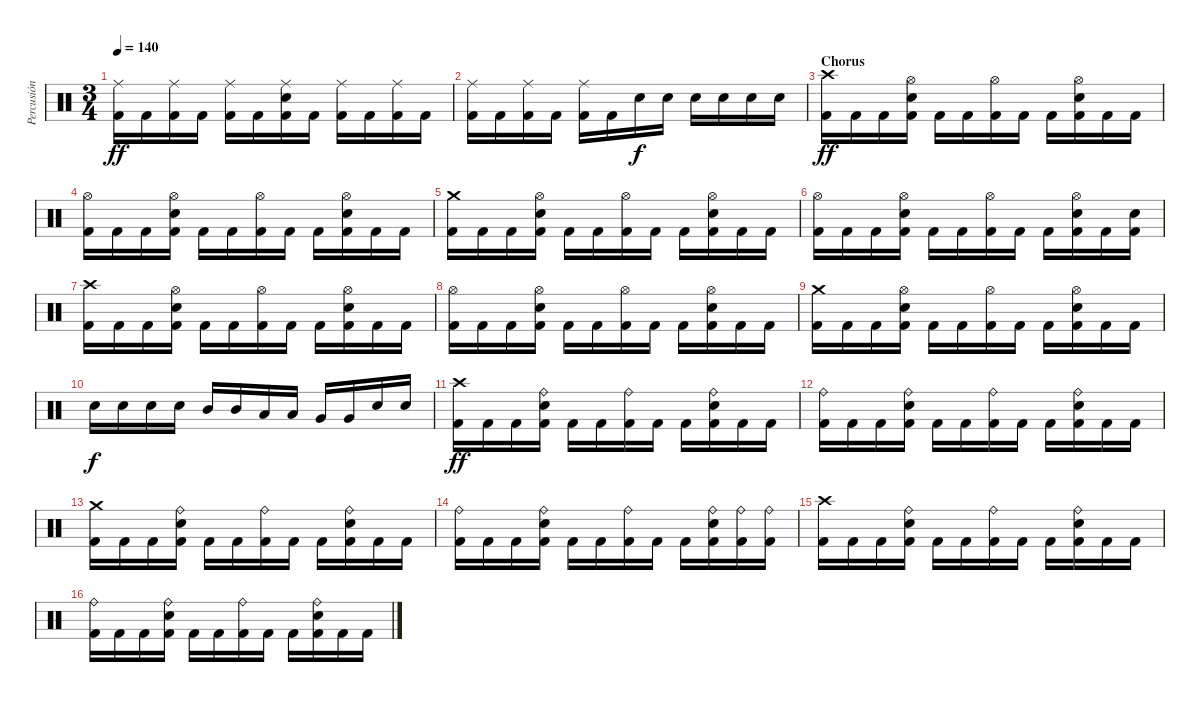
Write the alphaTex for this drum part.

\track ("Percusión" "Percusión") {instrument percussion}
\staff {score}
\articulation defaults
\ts (3 4)
\tempo 140
\clef neutral
\ks c
("Ride (middle)" "Kick (hit) 2").16{dy ff} "Kick (hit) 2".16 ("Ride (middle)" "Kick (hit) 2").16 "Kick (hit) 2".16 ("Ride (middle)" "Kick (hit) 2").16 "Kick (hit) 2".16 ("Ride (middle)" "Electric Snare (hit)" "Kick (hit) 2").16 "Kick (hit) 2".16 ("Ride (middle)" "Kick (hit) 2").16 "Kick (hit) 2".16 ("Ride (middle)" "Kick (hit) 2").16 "Kick (hit) 2".16 |
("Ride (middle)" "Kick (hit) 2").16 "Kick (hit) 2".16 ("Ride (middle)" "Kick (hit) 2").16 "Kick (hit) 2".16 ("Ride (middle)" "Kick (hit) 2").16 "Kick (hit) 2".16 "Electric Snare (hit)".16{dy f} "Electric Snare (hit)".16 "Electric Snare (hit)".16 "Electric Snare (hit)".16 "Electric Snare (hit)".16 "Electric Snare (hit)".16 |
\section ("" "Chorus")
("Crash high (hit)" "Kick (hit) 2").16{dy ff} "Kick (hit) 2".16 "Kick (hit) 2".16 ("Hi-Hat (open)" "Electric Snare (hit)" "Kick (hit) 2").16 "Kick (hit) 2".16 "Kick (hit) 2".16 ("Hi-Hat (open)" "Kick (hit) 2").16 "Kick (hit) 2".16 "Kick (hit) 2".16 ("Hi-Hat (open)" "Electric Snare (hit)" "Kick (hit) 2").16 "Kick (hit) 2".16 "Kick (hit) 2".16 |
("Hi-Hat (open)" "Kick (hit) 2").16 "Kick (hit) 2".16 "Kick (hit) 2".16 ("Hi-Hat (open)" "Electric Snare (hit)" "Kick (hit) 2").16 "Kick (hit) 2".16 "Kick (hit) 2".16 ("Hi-Hat (open)" "Kick (hit) 2").16 "Kick (hit) 2".16 "Kick (hit) 2".16 ("Hi-Hat (open)" "Electric Snare (hit)" "Kick (hit) 2").16 "Kick (hit) 2".16 "Kick (hit) 2".16 |
("Crash medium (hit)" "Kick (hit) 2").16 "Kick (hit) 2".16 "Kick (hit) 2".16 ("Hi-Hat (open)" "Electric Snare (hit)" "Kick (hit) 2").16 "Kick (hit) 2".16 "Kick (hit) 2".16 ("Hi-Hat (open)" "Kick (hit) 2").16 "Kick (hit) 2".16 "Kick (hit) 2".16 ("Hi-Hat (open)" "Electric Snare (hit)" "Kick (hit) 2").16 "Kick (hit) 2".16 "Kick (hit) 2".16 |
("Hi-Hat (open)" "Kick (hit) 2").16 "Kick (hit) 2".16 "Kick (hit) 2".16 ("Hi-Hat (open)" "Electric Snare (hit)" "Kick (hit) 2").16 "Kick (hit) 2".16 "Kick (hit) 2".16 ("Hi-Hat (open)" "Kick (hit) 2").16 "Kick (hit) 2".16 "Kick (hit) 2".16 ("Hi-Hat (open)" "Electric Snare (hit)" "Kick (hit) 2").16 "Kick (hit) 2".16 ("Electric Snare (hit)" "Kick (hit) 2").16 |
("Crash high (hit)" "Kick (hit) 2").16 "Kick (hit) 2".16 "Kick (hit) 2".16 ("Hi-Hat (open)" "Electric Snare (hit)" "Kick (hit) 2").16 "Kick (hit) 2".16 "Kick (hit) 2".16 ("Hi-Hat (open)" "Kick (hit) 2").16 "Kick (hit) 2".16 "Kick (hit) 2".16 ("Hi-Hat (open)" "Electric Snare (hit)" "Kick (hit) 2").16 "Kick (hit) 2".16 "Kick (hit) 2".16 |
("Hi-Hat (open)" "Kick (hit) 2").16 "Kick (hit) 2".16 "Kick (hit) 2".16 ("Hi-Hat (open)" "Electric Snare (hit)" "Kick (hit) 2").16 "Kick (hit) 2".16 "Kick (hit) 2".16 ("Hi-Hat (open)" "Kick (hit) 2").16 "Kick (hit) 2".16 "Kick (hit) 2".16 ("Hi-Hat (open)" "Electric Snare (hit)" "Kick (hit) 2").16 "Kick (hit) 2".16 "Kick (hit) 2".16 |
("Crash medium (hit)" "Kick (hit) 2").16 "Kick (hit) 2".16 "Kick (hit) 2".16 ("Hi-Hat (open)" "Electric Snare (hit)" "Kick (hit) 2").16 "Kick (hit) 2".16 "Kick (hit) 2".16 ("Hi-Hat (open)" "Kick (hit) 2").16 "Kick (hit) 2".16 "Kick (hit) 2".16 ("Hi-Hat (open)" "Electric Snare (hit)" "Kick (hit) 2").16 "Kick (hit) 2".16 "Kick (hit) 2".16 |
"Electric Snare (hit)".16{dy f} "Electric Snare (hit)".16 "Electric Snare (hit)".16 "Electric Snare (hit)".16 "Mid Tom (hit)".16 "Mid Tom (hit)".16 "Low Tom (hit)".16 "Low Tom (hit)".16 "Very Low Tom (hit)".16 "Very Low Tom (hit)".16 "Electric Snare (hit)".16 "Electric Snare (hit)".16 |
("Crash high (hit)" "Kick (hit) 2").16{dy ff} "Kick (hit) 2".16 "Kick (hit) 2".16 ("Ride (bell)" "Electric Snare (hit)" "Kick (hit) 2").16 "Kick (hit) 2".16 "Kick (hit) 2".16 ("Ride (bell)" "Kick (hit) 2").16 "Kick (hit) 2".16 "Kick (hit) 2".16 ("Ride (bell)" "Electric Snare (hit)" "Kick (hit) 2").16 "Kick (hit) 2".16 "Kick (hit) 2".16 |
("Ride (bell)" "Kick (hit) 2").16 "Kick (hit) 2".16 "Kick (hit) 2".16 ("Ride (bell)" "Electric Snare (hit)" "Kick (hit) 2").16 "Kick (hit) 2".16 "Kick (hit) 2".16 ("Ride (bell)" "Kick (hit) 2").16 "Kick (hit) 2".16 "Kick (hit) 2".16 ("Ride (bell)" "Electric Snare (hit)" "Kick (hit) 2").16 "Kick (hit) 2".16 "Kick (hit) 2".16 |
("Crash medium (hit)" "Kick (hit) 2").16 "Kick (hit) 2".16 "Kick (hit) 2".16 ("Ride (bell)" "Electric Snare (hit)" "Kick (hit) 2").16 "Kick (hit) 2".16 "Kick (hit) 2".16 ("Ride (bell)" "Kick (hit) 2").16 "Kick (hit) 2".16 "Kick (hit) 2".16 ("Ride (bell)" "Electric Snare (hit)" "Kick (hit) 2").16 "Kick (hit) 2".16 "Kick (hit) 2".16 |
("Ride (bell)" "Kick (hit) 2").16 "Kick (hit) 2".16 "Kick (hit) 2".16 ("Ride (bell)" "Electric Snare (hit)" "Kick (hit) 2").16 "Kick (hit) 2".16 "Kick (hit) 2".16 ("Ride (bell)" "Kick (hit) 2").16 "Kick (hit) 2".16 "Kick (hit) 2".16 ("Ride (bell)" "Electric Snare (hit)" "Kick (hit) 2").16 ("Ride (bell)" "Kick (hit) 2").16 ("Ride (bell)" "Kick (hit) 2").16 |
("Crash high (hit)" "Kick (hit) 2").16 "Kick (hit) 2".16 "Kick (hit) 2".16 ("Ride (bell)" "Electric Snare (hit)" "Kick (hit) 2").16 "Kick (hit) 2".16 "Kick (hit) 2".16 ("Ride (bell)" "Kick (hit) 2").16 "Kick (hit) 2".16 "Kick (hit) 2".16 ("Ride (bell)" "Electric Snare (hit)" "Kick (hit) 2").16 "Kick (hit) 2".16 "Kick (hit) 2".16 |
("Ride (bell)" "Kick (hit) 2").16 "Kick (hit) 2".16 "Kick (hit) 2".16 ("Ride (bell)" "Electric Snare (hit)" "Kick (hit) 2").16 "Kick (hit) 2".16 "Kick (hit) 2".16 ("Ride (bell)" "Kick (hit) 2").16 "Kick (hit) 2".16 "Kick (hit) 2".16 ("Ride (bell)" "Electric Snare (hit)" "Kick (hit) 2").16 "Kick (hit) 2".16 "Kick (hit) 2".16
